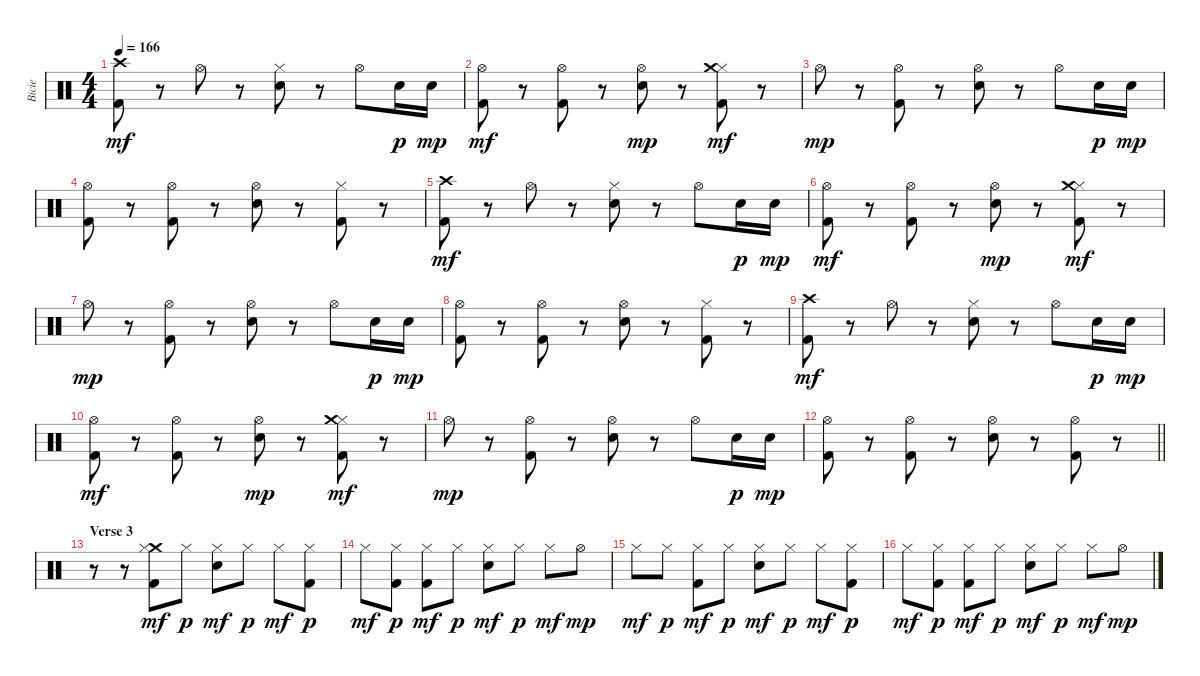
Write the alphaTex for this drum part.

\track ("Bicie" "Bicie") {instrument percussion}
\staff {score}
\articulation defaults
\ts (4 4)
\tempo 166
\clef neutral
\ks c
("Crash high (hit)" "Kick (hit) 2").8{dy mf} r.8 "Hi-Hat (open)".8 r.8 ("Hi-Hat (closed)" "Electric Snare (hit)").8 r.8 "Hi-Hat (open)".8 "Electric Snare (hit)".16{dy p} "Electric Snare (hit)".16{dy mp} |
("Hi-Hat (open)" "Kick (hit) 2").8{dy mf} r.8 ("Hi-Hat (open)" "Kick (hit) 2").8 r.8 ("Hi-Hat (open)" "Electric Snare (hit)").8{dy mp} r.8 ("Hi-Hat (closed)" "Crash medium (hit)" "Kick (hit) 2").8{dy mf} r.8 |
"Hi-Hat (open)".8{dy mp} r.8 ("Hi-Hat (open)" "Kick (hit) 2").8 r.8 ("Hi-Hat (open)" "Electric Snare (hit)").8 r.8 "Hi-Hat (open)".8 "Electric Snare (hit)".16{dy p} "Electric Snare (hit)".16{dy mp} |
("Hi-Hat (open)" "Kick (hit) 2").8 r.8 ("Hi-Hat (open)" "Kick (hit) 2").8 r.8 ("Hi-Hat (open)" "Electric Snare (hit)").8 r.8 ("Hi-Hat (closed)" "Kick (hit) 2").8 r.8 |
("Crash high (hit)" "Kick (hit) 2").8{dy mf} r.8 "Hi-Hat (open)".8 r.8 ("Hi-Hat (closed)" "Electric Snare (hit)").8 r.8 "Hi-Hat (open)".8 "Electric Snare (hit)".16{dy p} "Electric Snare (hit)".16{dy mp} |
("Hi-Hat (open)" "Kick (hit) 2").8{dy mf} r.8 ("Hi-Hat (open)" "Kick (hit) 2").8 r.8 ("Hi-Hat (open)" "Electric Snare (hit)").8{dy mp} r.8 ("Hi-Hat (closed)" "Crash medium (hit)" "Kick (hit) 2").8{dy mf} r.8 |
"Hi-Hat (open)".8{dy mp} r.8 ("Hi-Hat (open)" "Kick (hit) 2").8 r.8 ("Hi-Hat (open)" "Electric Snare (hit)").8 r.8 "Hi-Hat (open)".8 "Electric Snare (hit)".16{dy p} "Electric Snare (hit)".16{dy mp} |
("Hi-Hat (open)" "Kick (hit) 2").8 r.8 ("Hi-Hat (open)" "Kick (hit) 2").8 r.8 ("Hi-Hat (open)" "Electric Snare (hit)").8 r.8 ("Hi-Hat (closed)" "Kick (hit) 2").8 r.8 |
("Crash high (hit)" "Kick (hit) 2").8{dy mf} r.8 "Hi-Hat (open)".8 r.8 ("Hi-Hat (closed)" "Electric Snare (hit)").8 r.8 "Hi-Hat (open)".8 "Electric Snare (hit)".16{dy p} "Electric Snare (hit)".16{dy mp} |
("Hi-Hat (open)" "Kick (hit) 2").8{dy mf} r.8 ("Hi-Hat (open)" "Kick (hit) 2").8 r.8 ("Hi-Hat (open)" "Electric Snare (hit)").8{dy mp} r.8 ("Hi-Hat (closed)" "Crash medium (hit)" "Kick (hit) 2").8{dy mf} r.8 |
"Hi-Hat (open)".8{dy mp} r.8 ("Hi-Hat (open)" "Kick (hit) 2").8 r.8 ("Hi-Hat (open)" "Electric Snare (hit)").8 r.8 "Hi-Hat (open)".8 "Electric Snare (hit)".16{dy p} "Electric Snare (hit)".16{dy mp} |
\barLineRight lightlight
("Hi-Hat (open)" "Kick (hit) 2").8 r.8 ("Hi-Hat (open)" "Kick (hit) 2").8 r.8 ("Hi-Hat (open)" "Electric Snare (hit)").8 r.8 ("Hi-Hat (open)" "Kick (hit) 2").8 r.8 |
\section ("" "Verse 3")
r.8 r.8 ("Crash medium (hit)" "Kick (hit) 2" "Hi-Hat (closed)").8{dy mf} "Hi-Hat (closed)".8{dy p} ("Electric Snare (hit)" "Hi-Hat (closed)").8{dy mf} "Hi-Hat (closed)".8{dy p} "Hi-Hat (closed)".8{dy mf} ("Kick (hit) 2" "Hi-Hat (closed)").8{dy p} |
"Hi-Hat (closed)".8{dy mf} ("Kick (hit) 2" "Hi-Hat (closed)").8{dy p} ("Kick (hit) 2" "Hi-Hat (closed)").8{dy mf} "Hi-Hat (closed)".8{dy p} ("Electric Snare (hit)" "Hi-Hat (closed)").8{dy mf} "Hi-Hat (closed)".8{dy p} "Hi-Hat (closed)".8{dy mf} "Hi-Hat (open)".8{dy mp} |
"Hi-Hat (closed)".8{dy mf} "Hi-Hat (closed)".8{dy p} ("Kick (hit) 2" "Hi-Hat (closed)").8{dy mf} "Hi-Hat (closed)".8{dy p} ("Electric Snare (hit)" "Hi-Hat (closed)").8{dy mf} "Hi-Hat (closed)".8{dy p} "Hi-Hat (closed)".8{dy mf} ("Kick (hit) 2" "Hi-Hat (closed)").8{dy p} |
"Hi-Hat (closed)".8{dy mf} ("Kick (hit) 2" "Hi-Hat (closed)").8{dy p} ("Kick (hit) 2" "Hi-Hat (closed)").8{dy mf} "Hi-Hat (closed)".8{dy p} ("Electric Snare (hit)" "Hi-Hat (closed)").8{dy mf} "Hi-Hat (closed)".8{dy p} "Hi-Hat (closed)".8{dy mf} "Hi-Hat (open)".8{dy mp}
